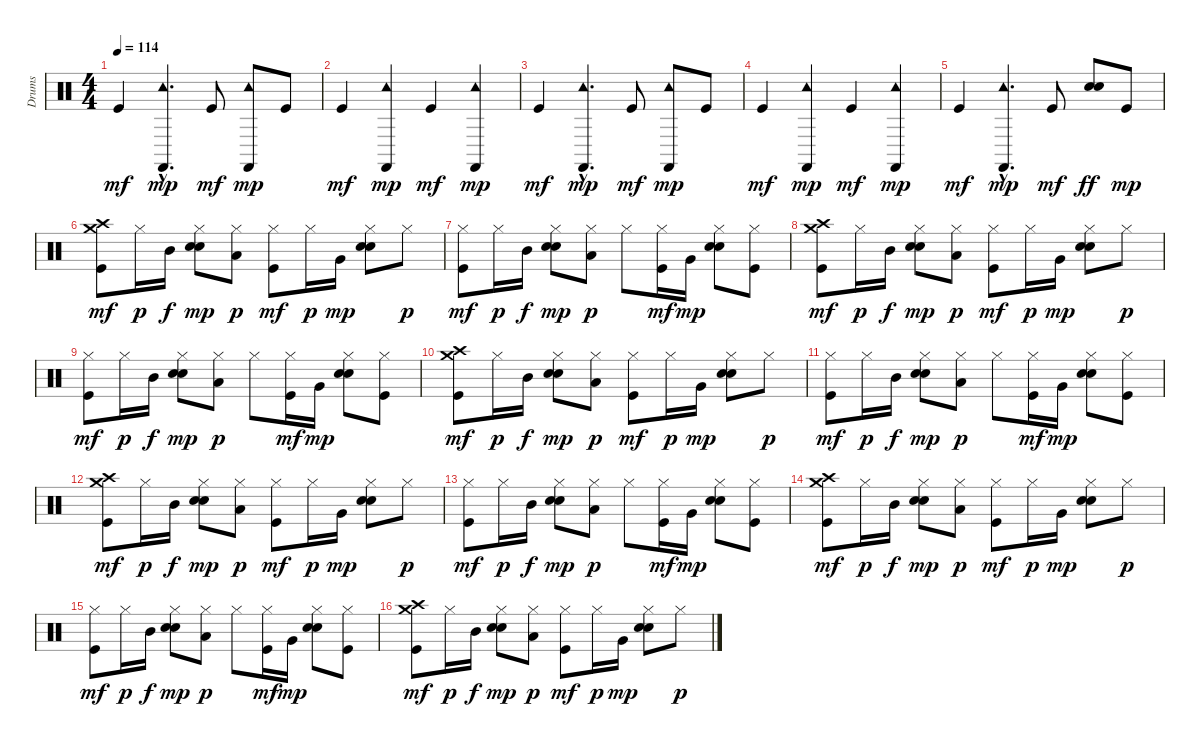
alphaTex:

\track ("Drums" "Drums") {instrument percussion}
\staff {score}
\articulation defaults
\ts (4 4)
\tempo 114
\clef neutral
\ks c "Kick (hit)".4{dy mf}
("Tambourine (hit)"{hac} "Castanets (hit)"{hac}).4{d dy mp} "Kick (hit)".8{dy mf} ("Tambourine (hit)" "Castanets (hit)").8{dy mp} "Kick (hit)".8 |
"Kick (hit)".4{dy mf} ("Tambourine (hit)" "Castanets (hit)").4{dy mp} "Kick (hit)".4{dy mf} ("Tambourine (hit)" "Castanets (hit)").4{dy mp} |
"Kick (hit)".4{dy mf} ("Tambourine (hit)"{hac} "Castanets (hit)"{hac}).4{d dy mp} "Kick (hit)".8{dy mf} ("Tambourine (hit)" "Castanets (hit)").8{dy mp} "Kick (hit)".8 |
"Kick (hit)".4{dy mf} ("Tambourine (hit)" "Castanets (hit)").4{dy mp} "Kick (hit)".4{dy mf} ("Tambourine (hit)" "Castanets (hit)").4{dy mp} |
"Kick (hit)".4{dy mf} ("Tambourine (hit)"{hac} "Castanets (hit)"{hac}).4{d dy mp} "Kick (hit)".8{dy mf} ("Snare (hit) 2" "Electric Snare (hit)").8{dy ff} "Kick (hit)".8{dy mp} |
("Crash medium (hit)" "Crash high (hit)" "Kick (hit)").8{dy mf} "Hi-Hat (closed)".16{dy p} "Mid Tom (hit)".16{dy f} ("Hi-Hat (closed)" "Snare (hit) 2" "Electric Snare (hit)").8{dy mp} ("Hi-Hat (closed)" "Low Tom (hit)").8{dy p} ("Hi-Hat (closed)" "Kick (hit)").8{dy mf} "Hi-Hat (closed)".16{dy p} "Very Low Tom (hit)".16{dy mp} ("Hi-Hat (closed)" "Snare (hit) 2" "Electric Snare (hit)").8 "Hi-Hat (closed)".8{dy p} |
("Hi-Hat (closed)" "Kick (hit)").8{dy mf} "Hi-Hat (closed)".16{dy p} "Mid Tom (hit)".16{dy f} ("Hi-Hat (closed)" "Snare (hit) 2" "Electric Snare (hit)").8{dy mp} ("Hi-Hat (closed)" "Low Tom (hit)").8{dy p} "Hi-Hat (closed)".8 ("Hi-Hat (closed)" "Kick (hit)").16{dy mf} "Very Low Tom (hit)".16{dy mp} ("Hi-Hat (closed)" "Snare (hit) 2" "Electric Snare (hit)").8 ("Hi-Hat (closed)" "Kick (hit)").8 |
("Crash medium (hit)" "Crash high (hit)" "Kick (hit)").8{dy mf} "Hi-Hat (closed)".16{dy p} "Mid Tom (hit)".16{dy f} ("Hi-Hat (closed)" "Snare (hit) 2" "Electric Snare (hit)").8{dy mp} ("Hi-Hat (closed)" "Low Tom (hit)").8{dy p} ("Hi-Hat (closed)" "Kick (hit)").8{dy mf} "Hi-Hat (closed)".16{dy p} "Very Low Tom (hit)".16{dy mp} ("Hi-Hat (closed)" "Snare (hit) 2" "Electric Snare (hit)").8 "Hi-Hat (closed)".8{dy p} |
("Hi-Hat (closed)" "Kick (hit)").8{dy mf} "Hi-Hat (closed)".16{dy p} "Mid Tom (hit)".16{dy f} ("Hi-Hat (closed)" "Snare (hit) 2" "Electric Snare (hit)").8{dy mp} ("Hi-Hat (closed)" "Low Tom (hit)").8{dy p} "Hi-Hat (closed)".8 ("Hi-Hat (closed)" "Kick (hit)").16{dy mf} "Very Low Tom (hit)".16{dy mp} ("Hi-Hat (closed)" "Snare (hit) 2" "Electric Snare (hit)").8 ("Hi-Hat (closed)" "Kick (hit)").8 |
("Crash medium (hit)" "Crash high (hit)" "Kick (hit)").8{dy mf} "Hi-Hat (closed)".16{dy p} "Mid Tom (hit)".16{dy f} ("Hi-Hat (closed)" "Snare (hit) 2" "Electric Snare (hit)").8{dy mp} ("Hi-Hat (closed)" "Low Tom (hit)").8{dy p} ("Hi-Hat (closed)" "Kick (hit)").8{dy mf} "Hi-Hat (closed)".16{dy p} "Very Low Tom (hit)".16{dy mp} ("Hi-Hat (closed)" "Snare (hit) 2" "Electric Snare (hit)").8 "Hi-Hat (closed)".8{dy p} |
("Hi-Hat (closed)" "Kick (hit)").8{dy mf} "Hi-Hat (closed)".16{dy p} "Mid Tom (hit)".16{dy f} ("Hi-Hat (closed)" "Snare (hit) 2" "Electric Snare (hit)").8{dy mp} ("Hi-Hat (closed)" "Low Tom (hit)").8{dy p} "Hi-Hat (closed)".8 ("Hi-Hat (closed)" "Kick (hit)").16{dy mf} "Very Low Tom (hit)".16{dy mp} ("Hi-Hat (closed)" "Snare (hit) 2" "Electric Snare (hit)").8 ("Hi-Hat (closed)" "Kick (hit)").8 |
("Crash medium (hit)" "Crash high (hit)" "Kick (hit)").8{dy mf} "Hi-Hat (closed)".16{dy p} "Mid Tom (hit)".16{dy f} ("Hi-Hat (closed)" "Snare (hit) 2" "Electric Snare (hit)").8{dy mp} ("Hi-Hat (closed)" "Low Tom (hit)").8{dy p} ("Hi-Hat (closed)" "Kick (hit)").8{dy mf} "Hi-Hat (closed)".16{dy p} "Very Low Tom (hit)".16{dy mp} ("Hi-Hat (closed)" "Snare (hit) 2" "Electric Snare (hit)").8 "Hi-Hat (closed)".8{dy p} |
("Hi-Hat (closed)" "Kick (hit)").8{dy mf} "Hi-Hat (closed)".16{dy p} "Mid Tom (hit)".16{dy f} ("Hi-Hat (closed)" "Snare (hit) 2" "Electric Snare (hit)").8{dy mp} ("Hi-Hat (closed)" "Low Tom (hit)").8{dy p} "Hi-Hat (closed)".8 ("Hi-Hat (closed)" "Kick (hit)").16{dy mf} "Very Low Tom (hit)".16{dy mp} ("Hi-Hat (closed)" "Snare (hit) 2" "Electric Snare (hit)").8 ("Hi-Hat (closed)" "Kick (hit)").8 |
("Crash medium (hit)" "Crash high (hit)" "Kick (hit)").8{dy mf} "Hi-Hat (closed)".16{dy p} "Mid Tom (hit)".16{dy f} ("Hi-Hat (closed)" "Snare (hit) 2" "Electric Snare (hit)").8{dy mp} ("Hi-Hat (closed)" "Low Tom (hit)").8{dy p} ("Hi-Hat (closed)" "Kick (hit)").8{dy mf} "Hi-Hat (closed)".16{dy p} "Very Low Tom (hit)".16{dy mp} ("Hi-Hat (closed)" "Snare (hit) 2" "Electric Snare (hit)").8 "Hi-Hat (closed)".8{dy p} |
("Hi-Hat (closed)" "Kick (hit)").8{dy mf} "Hi-Hat (closed)".16{dy p} "Mid Tom (hit)".16{dy f} ("Hi-Hat (closed)" "Snare (hit) 2" "Electric Snare (hit)").8{dy mp} ("Hi-Hat (closed)" "Low Tom (hit)").8{dy p} "Hi-Hat (closed)".8 ("Hi-Hat (closed)" "Kick (hit)").16{dy mf} "Very Low Tom (hit)".16{dy mp} ("Hi-Hat (closed)" "Snare (hit) 2" "Electric Snare (hit)").8 ("Hi-Hat (closed)" "Kick (hit)").8 |
("Crash medium (hit)" "Crash high (hit)" "Kick (hit)").8{dy mf} "Hi-Hat (closed)".16{dy p} "Mid Tom (hit)".16{dy f} ("Hi-Hat (closed)" "Snare (hit) 2" "Electric Snare (hit)").8{dy mp} ("Hi-Hat (closed)" "Low Tom (hit)").8{dy p} ("Hi-Hat (closed)" "Kick (hit)").8{dy mf} "Hi-Hat (closed)".16{dy p} "Very Low Tom (hit)".16{dy mp} ("Hi-Hat (closed)" "Snare (hit) 2" "Electric Snare (hit)").8 "Hi-Hat (closed)".8{dy p}
